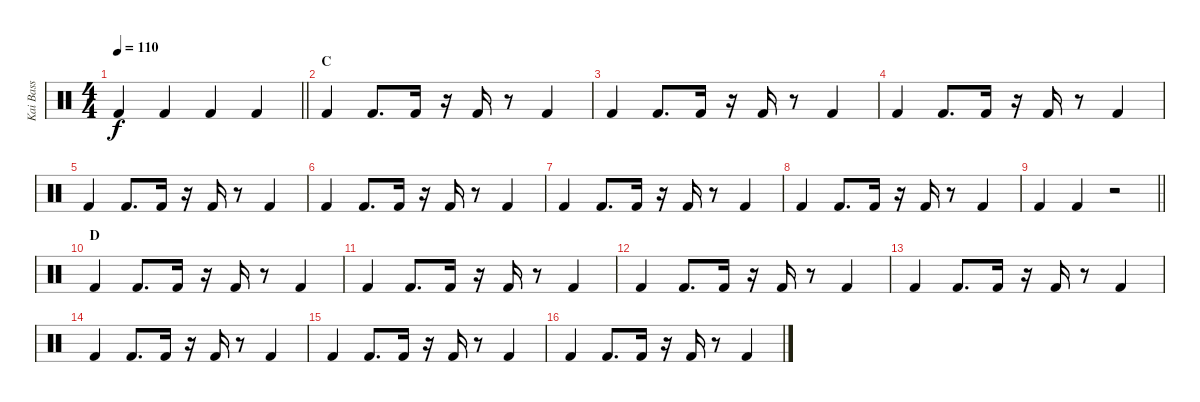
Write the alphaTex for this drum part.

\track ("Kai Bass" "Kai Bass") {instrument percussion}
\staff {score}
\articulation defaults
\ts (4 4)
\tempo 110
\clef neutral
\barLineRight lightlight
\ks c "Kick (hit) 2".4{dy f} "Kick (hit) 2".4 "Kick (hit) 2".4 "Kick (hit) 2".4
|
\section ("" "C")
"Kick (hit) 2".4 "Kick (hit) 2".8{d} "Kick (hit) 2".16 r.16 "Kick (hit) 2".16 r.8 "Kick (hit) 2".4 |
"Kick (hit) 2".4 "Kick (hit) 2".8{d} "Kick (hit) 2".16 r.16 "Kick (hit) 2".16 r.8 "Kick (hit) 2".4 |
"Kick (hit) 2".4 "Kick (hit) 2".8{d} "Kick (hit) 2".16 r.16 "Kick (hit) 2".16 r.8 "Kick (hit) 2".4 |
"Kick (hit) 2".4 "Kick (hit) 2".8{d} "Kick (hit) 2".16 r.16 "Kick (hit) 2".16 r.8 "Kick (hit) 2".4 |
"Kick (hit) 2".4 "Kick (hit) 2".8{d} "Kick (hit) 2".16 r.16 "Kick (hit) 2".16 r.8 "Kick (hit) 2".4 |
"Kick (hit) 2".4 "Kick (hit) 2".8{d} "Kick (hit) 2".16 r.16 "Kick (hit) 2".16 r.8 "Kick (hit) 2".4 |
"Kick (hit) 2".4 "Kick (hit) 2".8{d} "Kick (hit) 2".16 r.16 "Kick (hit) 2".16 r.8 "Kick (hit) 2".4 |
\barLineRight lightlight "Kick (hit) 2".4 "Kick (hit) 2".4
r.2 |
\section ("" "D")
"Kick (hit) 2".4 "Kick (hit) 2".8{d} "Kick (hit) 2".16 r.16 "Kick (hit) 2".16 r.8 "Kick (hit) 2".4 |
"Kick (hit) 2".4 "Kick (hit) 2".8{d} "Kick (hit) 2".16 r.16 "Kick (hit) 2".16 r.8 "Kick (hit) 2".4 |
"Kick (hit) 2".4 "Kick (hit) 2".8{d} "Kick (hit) 2".16 r.16 "Kick (hit) 2".16 r.8 "Kick (hit) 2".4 |
"Kick (hit) 2".4 "Kick (hit) 2".8{d} "Kick (hit) 2".16 r.16 "Kick (hit) 2".16 r.8 "Kick (hit) 2".4 |
"Kick (hit) 2".4 "Kick (hit) 2".8{d} "Kick (hit) 2".16 r.16 "Kick (hit) 2".16 r.8 "Kick (hit) 2".4 |
"Kick (hit) 2".4 "Kick (hit) 2".8{d} "Kick (hit) 2".16 r.16 "Kick (hit) 2".16 r.8 "Kick (hit) 2".4 |
"Kick (hit) 2".4 "Kick (hit) 2".8{d} "Kick (hit) 2".16 r.16 "Kick (hit) 2".16 r.8 "Kick (hit) 2".4
